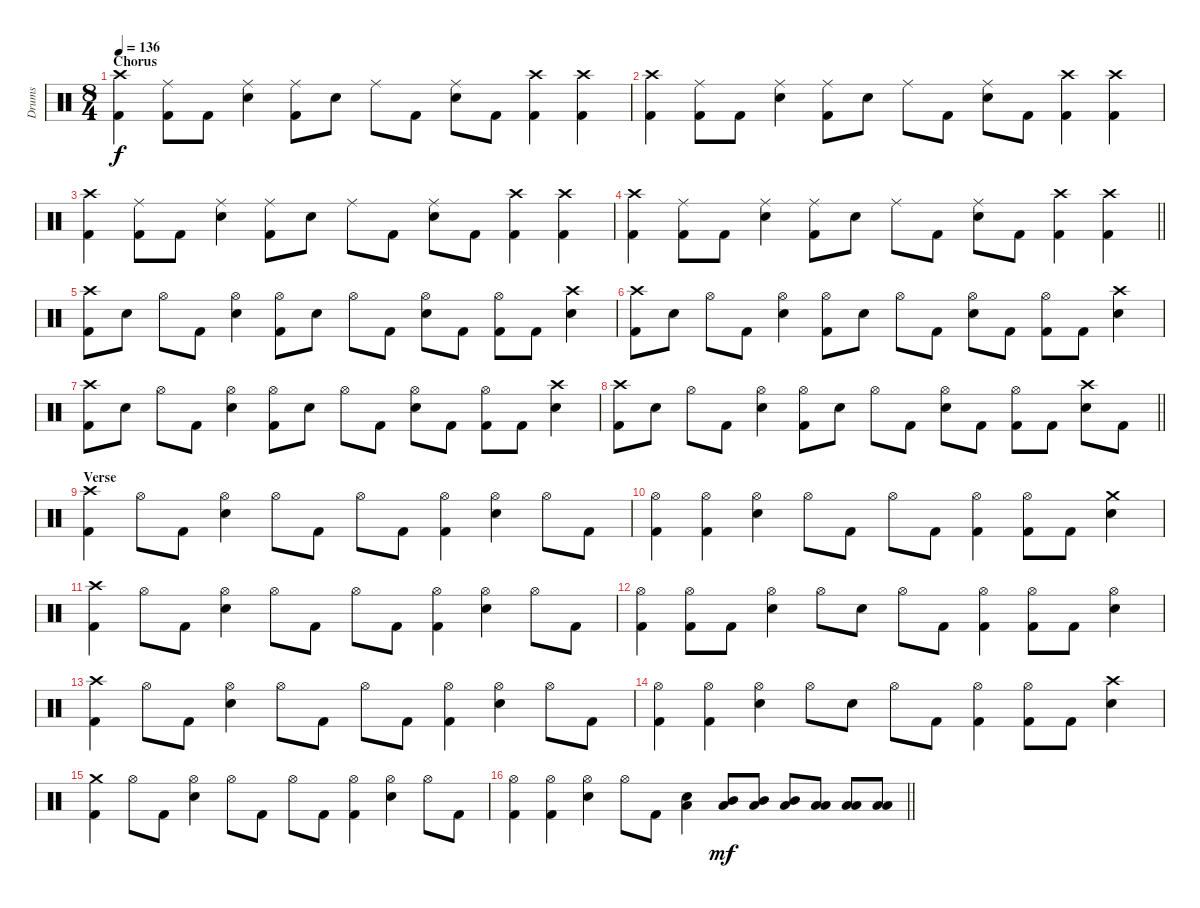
\track ("Drums" "Drums") {instrument percussion}
\staff {score}
\articulation defaults
\ts (8 4)
\section ("" "Chorus")
\tempo 136
\clef neutral
\ks c
("Crash high (hit)" "Kick (hit) 2").4{dy f} ("Ride (middle)" "Kick (hit) 2").8 "Kick (hit) 2".8 ("Ride (middle)" "Snare (hit) 2").4 ("Ride (middle)" "Kick (hit) 2").8 "Snare (hit) 2".8 "Ride (middle)".8 "Kick (hit) 2".8 ("Ride (middle)" "Snare (hit) 2").8 "Kick (hit) 2".8 ("Crash high (hit)" "Kick (hit) 2").4 ("Crash high (hit)" "Kick (hit) 2").4 |
("Crash high (hit)" "Kick (hit) 2").4 ("Ride (middle)" "Kick (hit) 2").8 "Kick (hit) 2".8 ("Ride (middle)" "Snare (hit) 2").4 ("Ride (middle)" "Kick (hit) 2").8 "Snare (hit) 2".8 "Ride (middle)".8 "Kick (hit) 2".8 ("Ride (middle)" "Snare (hit) 2").8 "Kick (hit) 2".8 ("Crash high (hit)" "Kick (hit) 2").4 ("Crash high (hit)" "Kick (hit) 2").4 |
("Crash high (hit)" "Kick (hit) 2").4 ("Ride (middle)" "Kick (hit) 2").8 "Kick (hit) 2".8 ("Ride (middle)" "Snare (hit) 2").4 ("Ride (middle)" "Kick (hit) 2").8 "Snare (hit) 2".8 "Ride (middle)".8 "Kick (hit) 2".8 ("Ride (middle)" "Snare (hit) 2").8 "Kick (hit) 2".8 ("Crash high (hit)" "Kick (hit) 2").4 ("Crash high (hit)" "Kick (hit) 2").4 |
\barLineRight lightlight
("Crash high (hit)" "Kick (hit) 2").4 ("Ride (middle)" "Kick (hit) 2").8 "Kick (hit) 2".8 ("Ride (middle)" "Snare (hit) 2").4 ("Ride (middle)" "Kick (hit) 2").8 "Snare (hit) 2".8 "Ride (middle)".8 "Kick (hit) 2".8 ("Ride (middle)" "Snare (hit) 2").8 "Kick (hit) 2".8 ("Crash high (hit)" "Kick (hit) 2").4 ("Crash high (hit)" "Kick (hit) 2").4 |
\section ("" "")
("Crash high (hit)" "Kick (hit) 2").8 "Snare (hit) 2".8 "Hi-Hat (open)".8 "Kick (hit) 2".8 ("Hi-Hat (open)" "Snare (hit) 2").4 ("Hi-Hat (open)" "Kick (hit) 2").8 "Snare (hit) 2".8 "Hi-Hat (open)".8 "Kick (hit) 2".8 ("Hi-Hat (open)" "Snare (hit) 2").8 "Kick (hit) 2".8 ("Hi-Hat (open)" "Kick (hit) 2").8 "Kick (hit) 2".8 ("Crash high (hit)" "Snare (hit) 2").4 |
("Crash high (hit)" "Kick (hit) 2").8 "Snare (hit) 2".8 "Hi-Hat (open)".8 "Kick (hit) 2".8 ("Hi-Hat (open)" "Snare (hit) 2").4 ("Hi-Hat (open)" "Kick (hit) 2").8 "Snare (hit) 2".8 "Hi-Hat (open)".8 "Kick (hit) 2".8 ("Hi-Hat (open)" "Snare (hit) 2").8 "Kick (hit) 2".8 ("Hi-Hat (open)" "Kick (hit) 2").8 "Kick (hit) 2".8 ("Crash high (hit)" "Snare (hit) 2").4 |
("Crash high (hit)" "Kick (hit) 2").8 "Snare (hit) 2".8 "Hi-Hat (open)".8 "Kick (hit) 2".8 ("Hi-Hat (open)" "Snare (hit) 2").4 ("Hi-Hat (open)" "Kick (hit) 2").8 "Snare (hit) 2".8 "Hi-Hat (open)".8 "Kick (hit) 2".8 ("Hi-Hat (open)" "Snare (hit) 2").8 "Kick (hit) 2".8 ("Hi-Hat (open)" "Kick (hit) 2").8 "Kick (hit) 2".8 ("Crash high (hit)" "Snare (hit) 2").4 |
\barLineRight lightlight
("Crash high (hit)" "Kick (hit) 2").8 "Snare (hit) 2".8 "Hi-Hat (open)".8 "Kick (hit) 2".8 ("Hi-Hat (open)" "Snare (hit) 2").4 ("Hi-Hat (open)" "Kick (hit) 2").8 "Snare (hit) 2".8 "Hi-Hat (open)".8 "Kick (hit) 2".8 ("Hi-Hat (open)" "Snare (hit) 2").8 "Kick (hit) 2".8 ("Hi-Hat (open)" "Kick (hit) 2").8 "Kick (hit) 2".8 ("Crash high (hit)" "Snare (hit) 2").8 "Kick (hit) 2".8 |
\section ("" "Verse")
("Crash high (hit)" "Kick (hit) 2").4 "Hi-Hat (open)".8 "Kick (hit) 2".8 ("Hi-Hat (open)" "Snare (hit) 2").4 "Hi-Hat (open)".8 "Kick (hit) 2".8 "Hi-Hat (open)".8 "Kick (hit) 2".8 ("Hi-Hat (open)" "Kick (hit) 2").4 ("Hi-Hat (open)" "Snare (hit) 2").4 "Hi-Hat (open)".8 "Kick (hit) 2".8 |
("Hi-Hat (open)" "Kick (hit) 2").4 ("Hi-Hat (open)" "Kick (hit) 2").4 ("Hi-Hat (open)" "Snare (hit) 2").4 "Hi-Hat (open)".8 "Kick (hit) 2".8 "Hi-Hat (open)".8 "Kick (hit) 2".8 ("Hi-Hat (open)" "Kick (hit) 2").4 ("Hi-Hat (open)" "Kick (hit) 2").8 "Kick (hit) 2".8 ("Crash medium (hit)" "Snare (hit) 2").4 |
("Crash high (hit)" "Kick (hit) 2").4 "Hi-Hat (open)".8 "Kick (hit) 2".8 ("Hi-Hat (open)" "Snare (hit) 2").4 "Hi-Hat (open)".8 "Kick (hit) 2".8 "Hi-Hat (open)".8 "Kick (hit) 2".8 ("Hi-Hat (open)" "Kick (hit) 2").4 ("Hi-Hat (open)" "Snare (hit) 2").4 "Hi-Hat (open)".8 "Kick (hit) 2".8 |
("Hi-Hat (open)" "Kick (hit) 2").4 ("Hi-Hat (open)" "Kick (hit) 2").8 "Kick (hit) 2".8 ("Hi-Hat (open)" "Snare (hit) 2").4 "Hi-Hat (open)".8 "Snare (hit) 2".8 "Hi-Hat (open)".8 "Kick (hit) 2".8 ("Hi-Hat (open)" "Kick (hit) 2").4 ("Hi-Hat (open)" "Kick (hit) 2").8 "Kick (hit) 2".8 ("Hi-Hat (open)" "Snare (hit) 2").4 |
("Crash high (hit)" "Kick (hit) 2").4 "Hi-Hat (open)".8 "Kick (hit) 2".8 ("Hi-Hat (open)" "Snare (hit) 2").4 "Hi-Hat (open)".8 "Kick (hit) 2".8 "Hi-Hat (open)".8 "Kick (hit) 2".8 ("Hi-Hat (open)" "Kick (hit) 2").4 ("Hi-Hat (open)" "Snare (hit) 2").4 "Hi-Hat (open)".8 "Kick (hit) 2".8 |
("Hi-Hat (open)" "Kick (hit) 2").4 ("Hi-Hat (open)" "Kick (hit) 2").4 ("Hi-Hat (open)" "Snare (hit) 2").4 "Hi-Hat (open)".8 "Snare (hit) 2".8 "Hi-Hat (open)".8 "Kick (hit) 2".8 ("Hi-Hat (open)" "Kick (hit) 2").4 ("Hi-Hat (open)" "Kick (hit) 2").8 "Kick (hit) 2".8 ("Crash high (hit)" "Snare (hit) 2").4 |
("Crash medium (hit)" "Kick (hit) 2").4 "Hi-Hat (open)".8 "Kick (hit) 2".8 ("Hi-Hat (open)" "Snare (hit) 2").4 "Hi-Hat (open)".8 "Kick (hit) 2".8 "Hi-Hat (open)".8 "Kick (hit) 2".8 ("Hi-Hat (open)" "Kick (hit) 2").4 ("Hi-Hat (open)" "Snare (hit) 2").4 "Hi-Hat (open)".8 "Kick (hit) 2".8 |
\barLineRight lightlight
("Hi-Hat (open)" "Kick (hit) 2").4 ("Hi-Hat (open)" "Kick (hit) 2").4 ("Hi-Hat (open)" "Snare (hit) 2").4 "Hi-Hat (open)".8 "Kick (hit) 2".8 ("Low Tom (hit)" "Snare (hit) 2").4 ("Mid Tom (hit)" "Low Floor Tom (hit)").8{dy mf} ("Mid Tom (hit)" "Low Floor Tom (hit)").8 ("Mid Tom (hit)" "Low Floor Tom (hit)").8 ("Low Tom (hit)" "Low Floor Tom (hit)").8 ("Low Tom (hit)" "Low Floor Tom (hit)").8 ("Low Tom (hit)" "Low Floor Tom (hit)").8
